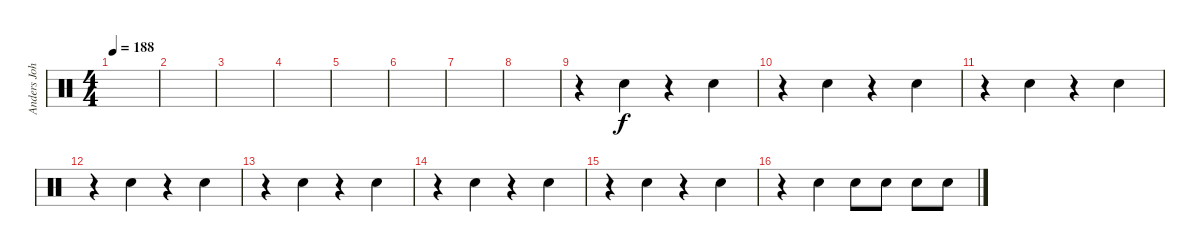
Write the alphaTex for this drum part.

\track ("Anders Johansson" "Anders Joh") {instrument percussion}
\staff {score}
\articulation defaults
\ts (4 4)
\tempo 188
\clef neutral
\ks c
|
|
|
|
|
|
|
|
r.4 "Snare (hit) 2".4 r.4 "Snare (hit) 2".4 |
r.4 "Snare (hit) 2".4 r.4 "Snare (hit) 2".4 |
r.4 "Snare (hit) 2".4 r.4 "Snare (hit) 2".4 |
r.4 "Snare (hit) 2".4 r.4 "Snare (hit) 2".4 |
r.4 "Snare (hit) 2".4 r.4 "Snare (hit) 2".4 |
r.4 "Snare (hit) 2".4 r.4 "Snare (hit) 2".4 |
r.4 "Snare (hit) 2".4 r.4 "Snare (hit) 2".4 |
r.4 "Snare (hit) 2".4 "Snare (hit) 2".8 "Snare (hit) 2".8 "Snare (hit) 2".8 "Snare (hit) 2".8
